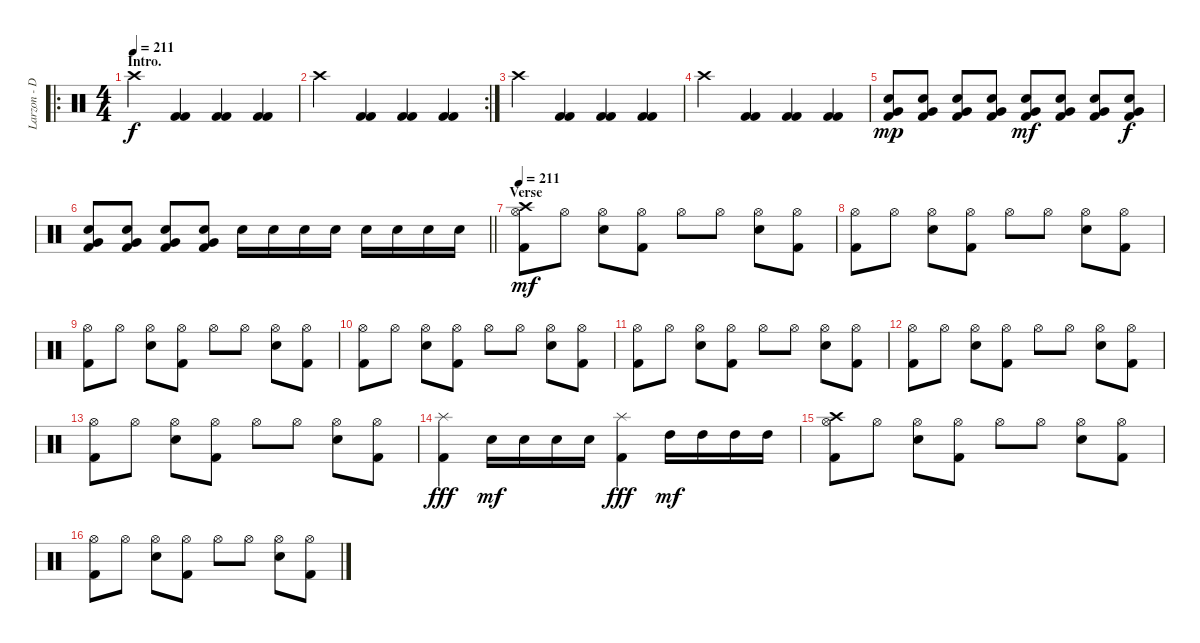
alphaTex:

\track ("Larzon - Drums" "Larzon - D") {instrument percussion}
\staff {score}
\articulation defaults
\ro
\ts (4 4)
\section ("" "Intro.")
\tempo 211
\tempo 195
\tempo 211
\clef neutral
\ks c "Crash high (hit)".4{dy f}
("Kick (hit) 2" "Kick (hit) 2").4 ("Kick (hit) 2" "Kick (hit) 2").4 ("Kick (hit) 2" "Kick (hit) 2").4 |
\rc 2 "Crash high (hit)".4
("Kick (hit) 2" "Kick (hit) 2").4 ("Kick (hit) 2" "Kick (hit) 2").4 ("Kick (hit) 2" "Kick (hit) 2").4 |
"Crash high (hit)".4 ("Kick (hit) 2" "Kick (hit) 2").4 ("Kick (hit) 2" "Kick (hit) 2").4 ("Kick (hit) 2" "Kick (hit) 2").4 |
"Crash high (hit)".4 ("Kick (hit) 2" "Kick (hit) 2").4 ("Kick (hit) 2" "Kick (hit) 2").4 ("Kick (hit) 2" "Kick (hit) 2").4 |
("Kick (hit) 2" "Very Low Tom (hit)" "Snare (hit) 2").8{dy mp} ("Kick (hit) 2" "Very Low Tom (hit)" "Snare (hit) 2").8 ("Kick (hit) 2" "Very Low Tom (hit)" "Snare (hit) 2").8 ("Kick (hit) 2" "Very Low Tom (hit)" "Snare (hit) 2").8 ("Kick (hit) 2" "Very Low Tom (hit)" "Snare (hit) 2").8{dy mf} ("Kick (hit) 2" "Very Low Tom (hit)" "Snare (hit) 2").8 ("Kick (hit) 2" "Very Low Tom (hit)" "Snare (hit) 2").8 ("Kick (hit) 2" "Very Low Tom (hit)" "Snare (hit) 2").8{dy f} |
\barLineRight lightlight
("Kick (hit) 2" "Very Low Tom (hit)" "Snare (hit) 2").8 ("Kick (hit) 2" "Very Low Tom (hit)" "Snare (hit) 2").8 ("Kick (hit) 2" "Very Low Tom (hit)" "Snare (hit) 2").8 ("Kick (hit) 2" "Very Low Tom (hit)" "Snare (hit) 2").8 "Snare (hit) 2".16 "Snare (hit) 2".16 "Snare (hit) 2".16 "Snare (hit) 2".16 "Snare (hit) 2".16 "Snare (hit) 2".16 "Snare (hit) 2".16 "Snare (hit) 2".16 |
\section ("" "Verse")
\tempo 211
("Kick (hit) 2" "Crash high (hit)" "Hi-Hat (open)").8{dy mf} "Hi-Hat (open)".8 ("Snare (hit) 2" "Hi-Hat (open)").8 ("Kick (hit) 2" "Hi-Hat (open)").8 "Hi-Hat (open)".8 "Hi-Hat (open)".8 ("Snare (hit) 2" "Hi-Hat (open)").8 ("Kick (hit) 2" "Hi-Hat (open)").8 |
("Kick (hit) 2" "Hi-Hat (open)").8 "Hi-Hat (open)".8 ("Snare (hit) 2" "Hi-Hat (open)").8 ("Kick (hit) 2" "Hi-Hat (open)").8 "Hi-Hat (open)".8 "Hi-Hat (open)".8 ("Snare (hit) 2" "Hi-Hat (open)").8 ("Kick (hit) 2" "Hi-Hat (open)").8 |
("Kick (hit) 2" "Hi-Hat (open)").8 "Hi-Hat (open)".8 ("Snare (hit) 2" "Hi-Hat (open)").8 ("Kick (hit) 2" "Hi-Hat (open)").8 "Hi-Hat (open)".8 "Hi-Hat (open)".8 ("Snare (hit) 2" "Hi-Hat (open)").8 ("Kick (hit) 2" "Hi-Hat (open)").8 |
("Kick (hit) 2" "Hi-Hat (open)").8 "Hi-Hat (open)".8 ("Snare (hit) 2" "Hi-Hat (open)").8 ("Kick (hit) 2" "Hi-Hat (open)").8 "Hi-Hat (open)".8 "Hi-Hat (open)".8 ("Snare (hit) 2" "Hi-Hat (open)").8 ("Kick (hit) 2" "Hi-Hat (open)").8 |
("Kick (hit) 2" "Hi-Hat (open)").8 "Hi-Hat (open)".8 ("Snare (hit) 2" "Hi-Hat (open)").8 ("Kick (hit) 2" "Hi-Hat (open)").8 "Hi-Hat (open)".8 "Hi-Hat (open)".8 ("Snare (hit) 2" "Hi-Hat (open)").8 ("Kick (hit) 2" "Hi-Hat (open)").8 |
("Kick (hit) 2" "Hi-Hat (open)").8 "Hi-Hat (open)".8 ("Snare (hit) 2" "Hi-Hat (open)").8 ("Kick (hit) 2" "Hi-Hat (open)").8 "Hi-Hat (open)".8 "Hi-Hat (open)".8 ("Snare (hit) 2" "Hi-Hat (open)").8 ("Kick (hit) 2" "Hi-Hat (open)").8 |
("Kick (hit) 2" "Hi-Hat (open)").8 "Hi-Hat (open)".8 ("Snare (hit) 2" "Hi-Hat (open)").8 ("Kick (hit) 2" "Hi-Hat (open)").8 "Hi-Hat (open)".8 "Hi-Hat (open)".8 ("Snare (hit) 2" "Hi-Hat (open)").8 ("Kick (hit) 2" "Hi-Hat (open)").8 |
("Splash (hit)" "Kick (hit) 2").4{dy fff} "Snare (hit) 2".16{dy mf} "Snare (hit) 2".16 "Snare (hit) 2".16 "Snare (hit) 2".16 ("Splash (hit)" "Kick (hit) 2").4{dy fff} "High Tom (hit)".16{dy mf} "High Tom (hit)".16 "High Tom (hit)".16 "High Tom (hit)".16 |
("Kick (hit) 2" "Crash high (hit)" "Hi-Hat (open)").8 "Hi-Hat (open)".8 ("Snare (hit) 2" "Hi-Hat (open)").8 ("Kick (hit) 2" "Hi-Hat (open)").8 "Hi-Hat (open)".8 "Hi-Hat (open)".8 ("Snare (hit) 2" "Hi-Hat (open)").8 ("Kick (hit) 2" "Hi-Hat (open)").8 |
("Kick (hit) 2" "Hi-Hat (open)").8 "Hi-Hat (open)".8 ("Snare (hit) 2" "Hi-Hat (open)").8 ("Kick (hit) 2" "Hi-Hat (open)").8 "Hi-Hat (open)".8 "Hi-Hat (open)".8 ("Snare (hit) 2" "Hi-Hat (open)").8 ("Kick (hit) 2" "Hi-Hat (open)").8
